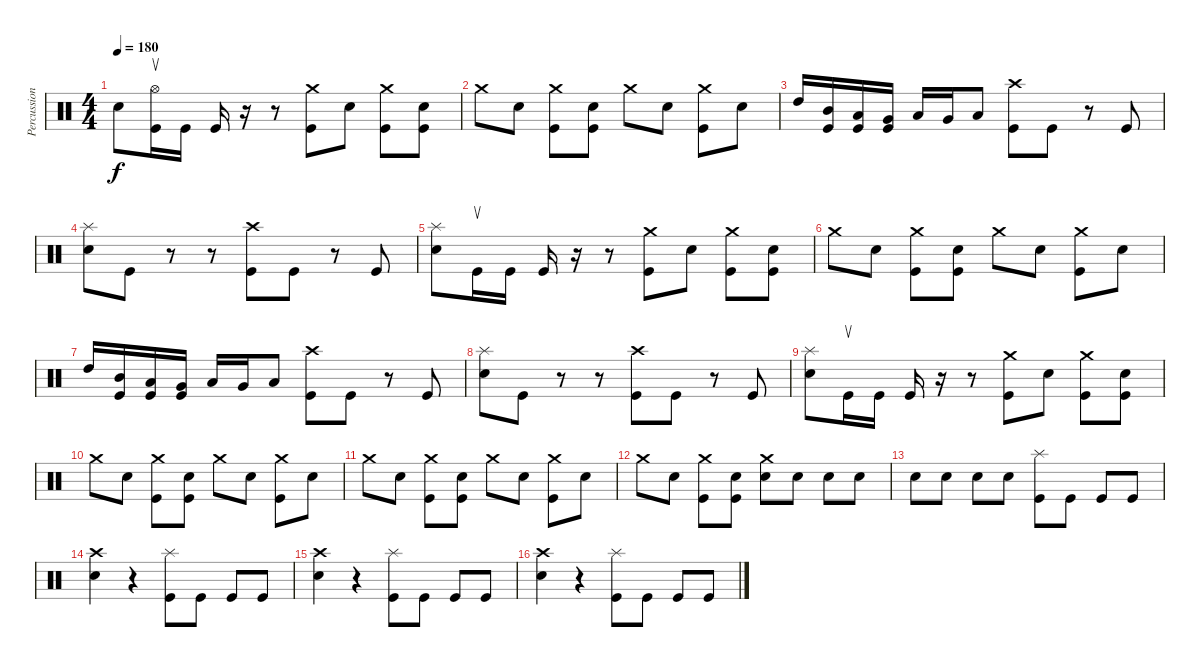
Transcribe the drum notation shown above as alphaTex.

\track ("Percussion" "Percussion") {instrument percussion}
\staff {score}
\articulation defaults
\ts (4 4)
\tempo 180
\clef neutral
\ks c "Snare (hit) 2".8{dy f}
("Hi-Hat (open)" "Kick (hit)").16{su} "Kick (hit)".16 "Kick (hit)".16 r.16 r.8 ("Crash medium (hit)" "Kick (hit)").8 "Snare (hit) 2".8 ("Crash medium (hit)" "Kick (hit)").8 ("Snare (hit) 2" "Kick (hit)").8 |
"Crash medium (hit)".8 "Snare (hit) 2".8 ("Crash medium (hit)" "Kick (hit)").8 ("Snare (hit) 2" "Kick (hit)").8 "Crash medium (hit)".8 "Snare (hit) 2".8 ("Crash medium (hit)" "Kick (hit)").8 "Snare (hit) 2".8 |
"High Tom (hit)".16 ("Mid Tom (hit)" "Kick (hit)").16 ("Low Tom (hit)" "Kick (hit)").16 ("Very Low Tom (hit)" "Kick (hit)").16 "Low Floor Tom (hit)".16 "Very Low Tom (hit)".16 "Low Floor Tom (hit)".8 ("Crash high (hit)" "Kick (hit)").8 "Kick (hit)".8 r.8 "Kick (hit)".8 |
("Splash (hit)" "Snare (hit) 2").8 "Kick (hit)".8 r.8 r.8 ("Crash high (hit)" "Kick (hit)").8 "Kick (hit)".8 r.8 "Kick (hit)".8 |
("Splash (hit)" "Snare (hit) 2").8 "Kick (hit)".16{su} "Kick (hit)".16 "Kick (hit)".16 r.16 r.8 ("Crash medium (hit)" "Kick (hit)").8 "Snare (hit) 2".8 ("Crash medium (hit)" "Kick (hit)").8 ("Snare (hit) 2" "Kick (hit)").8 |
"Crash medium (hit)".8 "Snare (hit) 2".8 ("Crash medium (hit)" "Kick (hit)").8 ("Snare (hit) 2" "Kick (hit)").8 "Crash medium (hit)".8 "Snare (hit) 2".8 ("Crash medium (hit)" "Kick (hit)").8 "Snare (hit) 2".8 |
"High Tom (hit)".16 ("Mid Tom (hit)" "Kick (hit)").16 ("Low Tom (hit)" "Kick (hit)").16 ("Very Low Tom (hit)" "Kick (hit)").16 "Low Floor Tom (hit)".16 "Very Low Tom (hit)".16 "Low Floor Tom (hit)".8 ("Crash high (hit)" "Kick (hit)").8 "Kick (hit)".8 r.8 "Kick (hit)".8 |
("Splash (hit)" "Snare (hit) 2").8 "Kick (hit)".8 r.8 r.8 ("Crash high (hit)" "Kick (hit)").8 "Kick (hit)".8 r.8 "Kick (hit)".8 |
("Splash (hit)" "Snare (hit) 2").8 "Kick (hit)".16{su} "Kick (hit)".16 "Kick (hit)".16 r.16 r.8 ("Crash medium (hit)" "Kick (hit)").8 "Snare (hit) 2".8 ("Crash medium (hit)" "Kick (hit)").8 ("Snare (hit) 2" "Kick (hit)").8 |
"Crash medium (hit)".8 "Snare (hit) 2".8 ("Crash medium (hit)" "Kick (hit)").8 ("Snare (hit) 2" "Kick (hit)").8 "Crash medium (hit)".8 "Snare (hit) 2".8 ("Crash medium (hit)" "Kick (hit)").8 "Snare (hit) 2".8 |
"Crash medium (hit)".8 "Snare (hit) 2".8 ("Crash medium (hit)" "Kick (hit)").8 ("Snare (hit) 2" "Kick (hit)").8 "Crash medium (hit)".8 "Snare (hit) 2".8 ("Crash medium (hit)" "Kick (hit)").8 "Snare (hit) 2".8 |
"Crash medium (hit)".8 "Snare (hit) 2".8 ("Crash medium (hit)" "Kick (hit)").8 ("Snare (hit) 2" "Kick (hit)").8 ("Crash medium (hit)" "Snare (hit) 2").8 "Snare (hit) 2".8 "Snare (hit) 2".8 "Snare (hit) 2".8 |
"Snare (hit) 2".8 "Snare (hit) 2".8 "Snare (hit) 2".8 "Snare (hit) 2".8 ("Splash (hit)" "Kick (hit)").8 "Kick (hit)".8 "Kick (hit)".8 "Kick (hit)".8 |
("Crash high (hit)" "Snare (hit) 2").4 r.4 ("Splash (hit)" "Kick (hit)").8 "Kick (hit)".8 "Kick (hit)".8 "Kick (hit)".8 |
("Crash high (hit)" "Snare (hit) 2").4 r.4 ("Splash (hit)" "Kick (hit)").8 "Kick (hit)".8 "Kick (hit)".8 "Kick (hit)".8 |
("Crash high (hit)" "Snare (hit) 2").4 r.4 ("Splash (hit)" "Kick (hit)").8 "Kick (hit)".8 "Kick (hit)".8 "Kick (hit)".8
